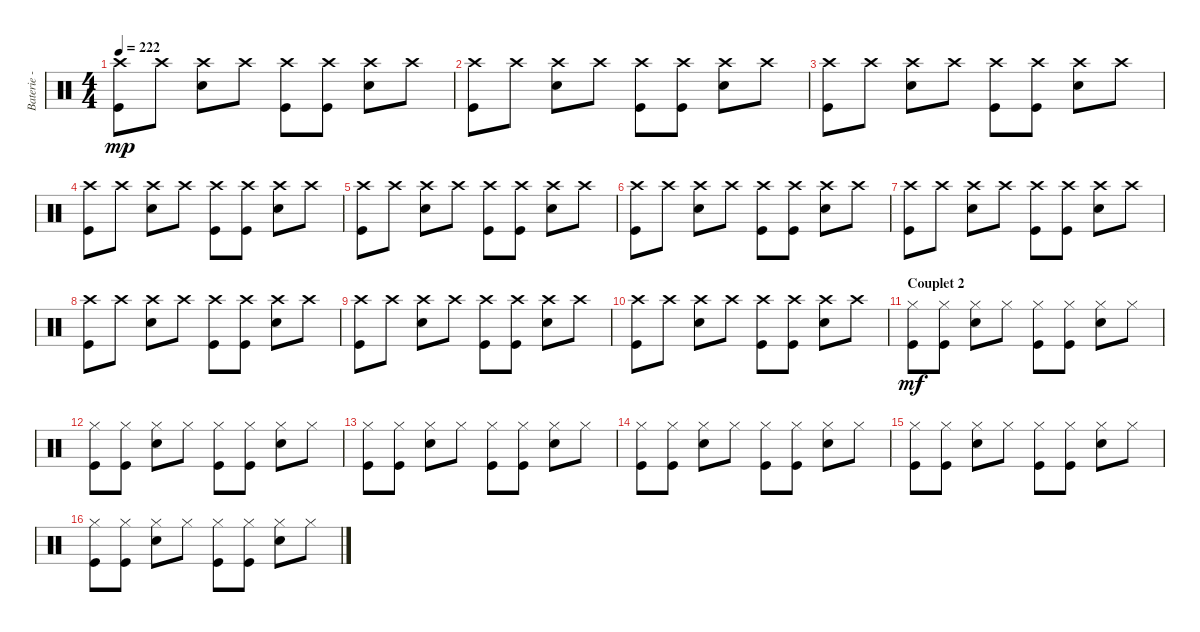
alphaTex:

\track ("Baterie - Guillaume" "Baterie - ") {instrument percussion}
\staff {score}
\articulation defaults
\ts (4 4)
\tempo 222
\clef neutral
\ks c
("Crash high (hit)" "Kick (hit)").8{dy mp} "Crash high (hit)".8 ("Crash high (hit)" "Snare (hit) 2").8 "Crash high (hit)".8 ("Crash high (hit)" "Kick (hit)").8 ("Crash high (hit)" "Kick (hit)").8 ("Crash high (hit)" "Snare (hit) 2").8 "Crash high (hit)".8 |
("Crash high (hit)" "Kick (hit)").8 "Crash high (hit)".8 ("Crash high (hit)" "Snare (hit) 2").8 "Crash high (hit)".8 ("Crash high (hit)" "Kick (hit)").8 ("Crash high (hit)" "Kick (hit)").8 ("Crash high (hit)" "Snare (hit) 2").8 "Crash high (hit)".8 |
("Crash high (hit)" "Kick (hit)").8 "Crash high (hit)".8 ("Crash high (hit)" "Snare (hit) 2").8 "Crash high (hit)".8 ("Crash high (hit)" "Kick (hit)").8 ("Crash high (hit)" "Kick (hit)").8 ("Crash high (hit)" "Snare (hit) 2").8 "Crash high (hit)".8 |
("Crash high (hit)" "Kick (hit)").8 "Crash high (hit)".8 ("Crash high (hit)" "Snare (hit) 2").8 "Crash high (hit)".8 ("Crash high (hit)" "Kick (hit)").8 ("Crash high (hit)" "Kick (hit)").8 ("Crash high (hit)" "Snare (hit) 2").8 "Crash high (hit)".8 |
("Crash high (hit)" "Kick (hit)").8 "Crash high (hit)".8 ("Crash high (hit)" "Snare (hit) 2").8 "Crash high (hit)".8 ("Crash high (hit)" "Kick (hit)").8 ("Crash high (hit)" "Kick (hit)").8 ("Crash high (hit)" "Snare (hit) 2").8 "Crash high (hit)".8 |
("Crash high (hit)" "Kick (hit)").8 "Crash high (hit)".8 ("Crash high (hit)" "Snare (hit) 2").8 "Crash high (hit)".8 ("Crash high (hit)" "Kick (hit)").8 ("Crash high (hit)" "Kick (hit)").8 ("Crash high (hit)" "Snare (hit) 2").8 "Crash high (hit)".8 |
("Crash high (hit)" "Kick (hit)").8 "Crash high (hit)".8 ("Crash high (hit)" "Snare (hit) 2").8 "Crash high (hit)".8 ("Crash high (hit)" "Kick (hit)").8 ("Crash high (hit)" "Kick (hit)").8 ("Crash high (hit)" "Snare (hit) 2").8 "Crash high (hit)".8 |
("Crash high (hit)" "Kick (hit)").8 "Crash high (hit)".8 ("Crash high (hit)" "Snare (hit) 2").8 "Crash high (hit)".8 ("Crash high (hit)" "Kick (hit)").8 ("Crash high (hit)" "Kick (hit)").8 ("Crash high (hit)" "Snare (hit) 2").8 "Crash high (hit)".8 |
("Crash high (hit)" "Kick (hit)").8 "Crash high (hit)".8 ("Crash high (hit)" "Snare (hit) 2").8 "Crash high (hit)".8 ("Crash high (hit)" "Kick (hit)").8 ("Crash high (hit)" "Kick (hit)").8 ("Crash high (hit)" "Snare (hit) 2").8 "Crash high (hit)".8 |
("Crash high (hit)" "Kick (hit)").8 "Crash high (hit)".8 ("Crash high (hit)" "Snare (hit) 2").8 "Crash high (hit)".8 ("Crash high (hit)" "Kick (hit)").8 ("Crash high (hit)" "Kick (hit)").8 ("Crash high (hit)" "Snare (hit) 2").8 "Crash high (hit)".8 |
\section ("" "Couplet 2")
("Hi-Hat (closed)" "Kick (hit)").8{dy mf} ("Hi-Hat (closed)" "Kick (hit)").8 ("Hi-Hat (closed)" "Snare (hit) 2").8 "Hi-Hat (closed)".8 ("Hi-Hat (closed)" "Kick (hit)").8 ("Hi-Hat (closed)" "Kick (hit)").8 ("Hi-Hat (closed)" "Snare (hit) 2").8 "Hi-Hat (closed)".8 |
("Hi-Hat (closed)" "Kick (hit)").8 ("Hi-Hat (closed)" "Kick (hit)").8 ("Hi-Hat (closed)" "Snare (hit) 2").8 "Hi-Hat (closed)".8 ("Hi-Hat (closed)" "Kick (hit)").8 ("Hi-Hat (closed)" "Kick (hit)").8 ("Hi-Hat (closed)" "Snare (hit) 2").8 "Hi-Hat (closed)".8 |
("Hi-Hat (closed)" "Kick (hit)").8 ("Hi-Hat (closed)" "Kick (hit)").8 ("Hi-Hat (closed)" "Snare (hit) 2").8 "Hi-Hat (closed)".8 ("Hi-Hat (closed)" "Kick (hit)").8 ("Hi-Hat (closed)" "Kick (hit)").8 ("Hi-Hat (closed)" "Snare (hit) 2").8 "Hi-Hat (closed)".8 |
("Hi-Hat (closed)" "Kick (hit)").8 ("Hi-Hat (closed)" "Kick (hit)").8 ("Hi-Hat (closed)" "Snare (hit) 2").8 "Hi-Hat (closed)".8 ("Hi-Hat (closed)" "Kick (hit)").8 ("Hi-Hat (closed)" "Kick (hit)").8 ("Hi-Hat (closed)" "Snare (hit) 2").8 "Hi-Hat (closed)".8 |
("Hi-Hat (closed)" "Kick (hit)").8 ("Hi-Hat (closed)" "Kick (hit)").8 ("Hi-Hat (closed)" "Snare (hit) 2").8 "Hi-Hat (closed)".8 ("Hi-Hat (closed)" "Kick (hit)").8 ("Hi-Hat (closed)" "Kick (hit)").8 ("Hi-Hat (closed)" "Snare (hit) 2").8 "Hi-Hat (closed)".8 |
("Hi-Hat (closed)" "Kick (hit)").8 ("Hi-Hat (closed)" "Kick (hit)").8 ("Hi-Hat (closed)" "Snare (hit) 2").8 "Hi-Hat (closed)".8 ("Hi-Hat (closed)" "Kick (hit)").8 ("Hi-Hat (closed)" "Kick (hit)").8 ("Hi-Hat (closed)" "Snare (hit) 2").8 "Hi-Hat (closed)".8
